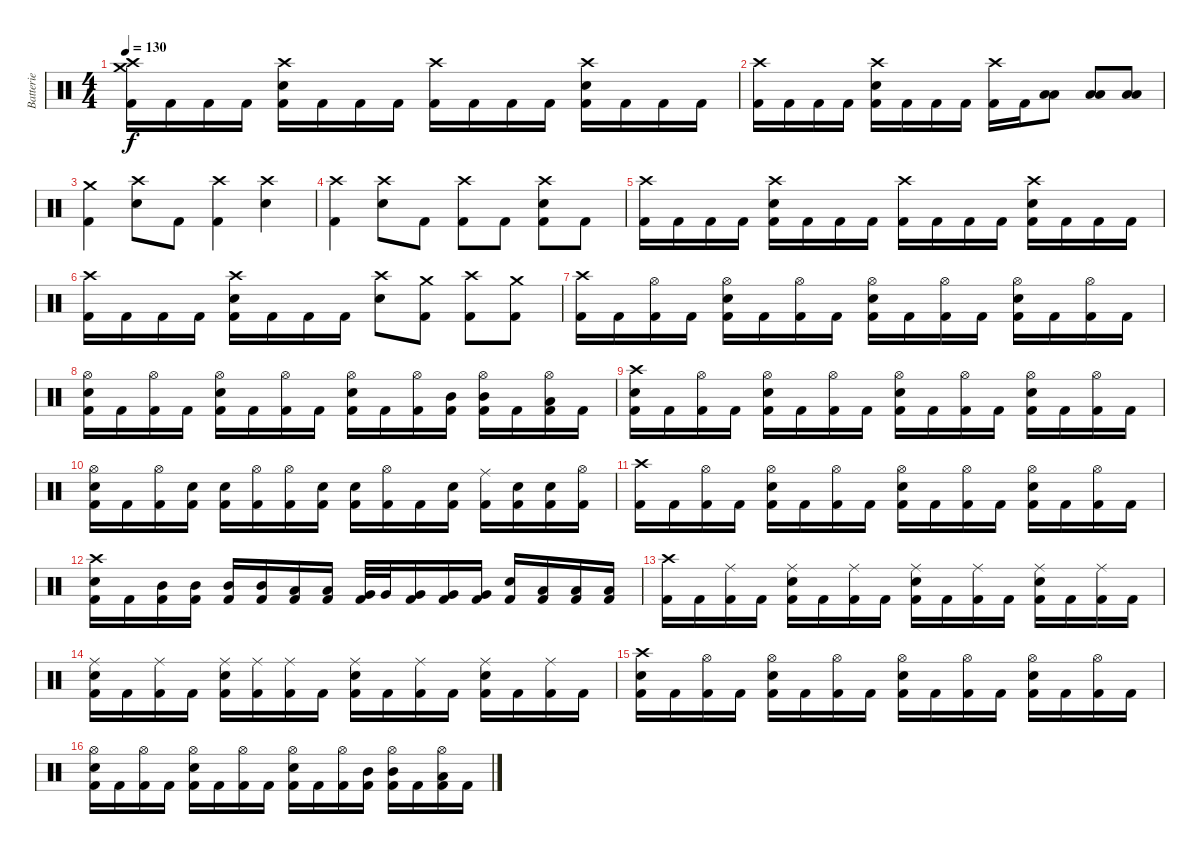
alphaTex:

\track ("Batterie" "Batterie") {instrument percussion}
\staff {score}
\articulation defaults
\ts (4 4)
\tempo 130
\clef neutral
\ks c
("Crash medium (hit)" "Crash high (hit)" "Kick (hit) 2").16{dy f} "Kick (hit) 2".16 "Kick (hit) 2".16 "Kick (hit) 2".16 ("Crash high (hit)" "Electric Snare (hit)" "Kick (hit) 2").16 "Kick (hit) 2".16 "Kick (hit) 2".16 "Kick (hit) 2".16 ("Crash high (hit)" "Kick (hit) 2").16 "Kick (hit) 2".16 "Kick (hit) 2".16 "Kick (hit) 2".16 ("Crash high (hit)" "Electric Snare (hit)" "Kick (hit) 2").16 "Kick (hit) 2".16 "Kick (hit) 2".16 "Kick (hit) 2".16 |
("Crash high (hit)" "Kick (hit) 2").16 "Kick (hit) 2".16 "Kick (hit) 2".16 "Kick (hit) 2".16 ("Crash high (hit)" "Electric Snare (hit)" "Kick (hit) 2").16 "Kick (hit) 2".16 "Kick (hit) 2".16 "Kick (hit) 2".16 ("Crash high (hit)" "Kick (hit) 2").16 "Kick (hit) 2".16 ("Low Tom (hit)" "Low Floor Tom (hit)").8{bu 60} ("Low Tom (hit)" "Low Floor Tom (hit)").8{bu 60} ("Low Tom (hit)" "Low Floor Tom (hit)").8{bu 60} |
("Crash medium (hit)" "Kick (hit) 2").4 ("Crash high (hit)" "Electric Snare (hit)").8 "Kick (hit) 2".8 ("Crash high (hit)" "Kick (hit) 2").4 ("Crash high (hit)" "Electric Snare (hit)").4 |
("Crash high (hit)" "Kick (hit) 2").4 ("Crash high (hit)" "Electric Snare (hit)").8 "Kick (hit) 2".8 ("Crash high (hit)" "Kick (hit) 2").8 "Kick (hit) 2".8 ("Crash high (hit)" "Electric Snare (hit)" "Kick (hit) 2").8 "Kick (hit) 2".8 |
("Crash high (hit)" "Kick (hit) 2").16 "Kick (hit) 2".16 "Kick (hit) 2".16 "Kick (hit) 2".16 ("Crash high (hit)" "Electric Snare (hit)" "Kick (hit) 2").16 "Kick (hit) 2".16 "Kick (hit) 2".16 "Kick (hit) 2".16 ("Crash high (hit)" "Kick (hit) 2").16 "Kick (hit) 2".16 "Kick (hit) 2".16 "Kick (hit) 2".16 ("Crash high (hit)" "Electric Snare (hit)" "Kick (hit) 2").16 "Kick (hit) 2".16 "Kick (hit) 2".16 "Kick (hit) 2".16 |
("Crash high (hit)" "Kick (hit) 2").16 "Kick (hit) 2".16 "Kick (hit) 2".16 "Kick (hit) 2".16 ("Crash high (hit)" "Electric Snare (hit)" "Kick (hit) 2").16 "Kick (hit) 2".16 "Kick (hit) 2".16 "Kick (hit) 2".16 ("Crash high (hit)" "Electric Snare (hit)").8 ("Crash medium (hit)" "Kick (hit) 2").8 ("Crash high (hit)" "Kick (hit) 2").8 ("Crash medium (hit)" "Kick (hit) 2").8 |
("Crash high (hit)" "Kick (hit) 2").16 "Kick (hit) 2".16 ("Hi-Hat (open)" "Kick (hit) 2").16 "Kick (hit) 2".16 ("Hi-Hat (open)" "Electric Snare (hit)" "Kick (hit) 2").16 "Kick (hit) 2".16 ("Hi-Hat (open)" "Kick (hit) 2").16 "Kick (hit) 2".16 ("Hi-Hat (open)" "Electric Snare (hit)" "Kick (hit) 2").16 "Kick (hit) 2".16 ("Hi-Hat (open)" "Kick (hit) 2").16 "Kick (hit) 2".16 ("Hi-Hat (open)" "Electric Snare (hit)" "Kick (hit) 2").16 "Kick (hit) 2".16 ("Hi-Hat (open)" "Kick (hit) 2").16 "Kick (hit) 2".16 |
("Hi-Hat (open)" "Electric Snare (hit)" "Kick (hit) 2").16 "Kick (hit) 2".16 ("Hi-Hat (open)" "Kick (hit) 2").16 "Kick (hit) 2".16 ("Hi-Hat (open)" "Electric Snare (hit)" "Kick (hit) 2").16 "Kick (hit) 2".16 ("Hi-Hat (open)" "Kick (hit) 2").16 "Kick (hit) 2".16 ("Hi-Hat (open)" "Electric Snare (hit)" "Kick (hit) 2").16 "Kick (hit) 2".16 ("Hi-Hat (open)" "Kick (hit) 2").16 ("Mid Tom (hit)" "Kick (hit) 2").16 ("Hi-Hat (open)" "Mid Tom (hit)" "Kick (hit) 2").16 "Kick (hit) 2".16 ("Hi-Hat (open)" "Low Tom (hit)" "Kick (hit) 2").16 "Kick (hit) 2".16 |
("Crash high (hit)" "Electric Snare (hit)" "Kick (hit) 2").16 "Kick (hit) 2".16 ("Hi-Hat (open)" "Kick (hit) 2").16 "Kick (hit) 2".16 ("Hi-Hat (open)" "Electric Snare (hit)" "Kick (hit) 2").16 "Kick (hit) 2".16 ("Hi-Hat (open)" "Kick (hit) 2").16 "Kick (hit) 2".16 ("Hi-Hat (open)" "Electric Snare (hit)" "Kick (hit) 2").16 "Kick (hit) 2".16 ("Hi-Hat (open)" "Kick (hit) 2").16 "Kick (hit) 2".16 ("Hi-Hat (open)" "Electric Snare (hit)" "Kick (hit) 2").16 "Kick (hit) 2".16 ("Hi-Hat (open)" "Kick (hit) 2").16 "Kick (hit) 2".16 |
("Hi-Hat (open)" "Electric Snare (hit)" "Kick (hit) 2").16 "Kick (hit) 2".16 ("Hi-Hat (open)" "Kick (hit) 2").16 ("Electric Snare (hit)" "Kick (hit) 2").16 ("Electric Snare (hit)" "Kick (hit) 2").16 ("Hi-Hat (open)" "Kick (hit) 2").16 ("Hi-Hat (open)" "Kick (hit) 2").16 ("Electric Snare (hit)" "Kick (hit) 2").16 ("Electric Snare (hit)" "Kick (hit) 2").16 ("Hi-Hat (open)" "Kick (hit) 2").16 "Kick (hit) 2".16 ("Electric Snare (hit)" "Kick (hit) 2").16 ("Ride (middle)" "Kick (hit) 2").16 ("Electric Snare (hit)" "Kick (hit) 2").16 ("Electric Snare (hit)" "Kick (hit) 2").16 ("Hi-Hat (open)" "Kick (hit) 2").16 |
("Crash high (hit)" "Kick (hit) 2").16 "Kick (hit) 2".16 ("Hi-Hat (open)" "Kick (hit) 2").16 "Kick (hit) 2".16 ("Hi-Hat (open)" "Electric Snare (hit)" "Kick (hit) 2").16 "Kick (hit) 2".16 ("Hi-Hat (open)" "Kick (hit) 2").16 "Kick (hit) 2".16 ("Hi-Hat (open)" "Electric Snare (hit)" "Kick (hit) 2").16 "Kick (hit) 2".16 ("Hi-Hat (open)" "Kick (hit) 2").16 "Kick (hit) 2".16 ("Hi-Hat (open)" "Electric Snare (hit)" "Kick (hit) 2").16 "Kick (hit) 2".16 ("Hi-Hat (open)" "Kick (hit) 2").16 "Kick (hit) 2".16 |
("Crash high (hit)" "Electric Snare (hit)" "Kick (hit) 2").16 "Kick (hit) 2".16 ("Mid Tom (hit)" "Kick (hit) 2").16 ("Mid Tom (hit)" "Kick (hit) 2").16 ("Mid Tom (hit)" "Kick (hit) 2").16 ("Mid Tom (hit)" "Kick (hit) 2").16 ("Low Tom (hit)" "Kick (hit) 2").16 ("Low Tom (hit)" "Kick (hit) 2").16 ("Very Low Tom (hit)" "Kick (hit) 2").32 "Very Low Tom (hit)".32 ("Very Low Tom (hit)" "Kick (hit) 2").16 ("Very Low Tom (hit)" "Kick (hit) 2").16 ("Very Low Tom (hit)" "Kick (hit) 2").16 ("Electric Snare (hit)" "Kick (hit) 2").16 ("Low Tom (hit)" "Kick (hit) 2").16 ("Low Tom (hit)" "Kick (hit) 2").16 ("Low Tom (hit)" "Kick (hit) 2").16 |
("Crash high (hit)" "Kick (hit) 2").16 "Kick (hit) 2".16 ("Ride (middle)" "Kick (hit) 2").16 "Kick (hit) 2".16 ("Ride (middle)" "Electric Snare (hit)" "Kick (hit) 2").16 "Kick (hit) 2".16 ("Ride (middle)" "Kick (hit) 2").16 "Kick (hit) 2".16 ("Ride (middle)" "Electric Snare (hit)" "Kick (hit) 2").16 "Kick (hit) 2".16 ("Ride (middle)" "Kick (hit) 2").16 "Kick (hit) 2".16 ("Ride (middle)" "Electric Snare (hit)" "Kick (hit) 2").16 "Kick (hit) 2".16 ("Ride (middle)" "Kick (hit) 2").16 "Kick (hit) 2".16 |
("Ride (middle)" "Electric Snare (hit)" "Kick (hit) 2").16 "Kick (hit) 2".16 ("Ride (middle)" "Kick (hit) 2").16 "Kick (hit) 2".16 ("Ride (middle)" "Electric Snare (hit)" "Kick (hit) 2").16 ("Ride (middle)" "Kick (hit) 2").16 ("Ride (middle)" "Kick (hit) 2").16 "Kick (hit) 2".16 ("Ride (middle)" "Electric Snare (hit)" "Kick (hit) 2").16 "Kick (hit) 2".16 ("Ride (middle)" "Kick (hit) 2").16 "Kick (hit) 2".16 ("Ride (middle)" "Electric Snare (hit)" "Kick (hit) 2").16 "Kick (hit) 2".16 ("Ride (middle)" "Kick (hit) 2").16 "Kick (hit) 2".16 |
("Crash high (hit)" "Electric Snare (hit)" "Kick (hit) 2").16 "Kick (hit) 2".16 ("Hi-Hat (open)" "Kick (hit) 2").16 "Kick (hit) 2".16 ("Hi-Hat (open)" "Electric Snare (hit)" "Kick (hit) 2").16 "Kick (hit) 2".16 ("Hi-Hat (open)" "Kick (hit) 2").16 "Kick (hit) 2".16 ("Hi-Hat (open)" "Electric Snare (hit)" "Kick (hit) 2").16 "Kick (hit) 2".16 ("Hi-Hat (open)" "Kick (hit) 2").16 "Kick (hit) 2".16 ("Hi-Hat (open)" "Electric Snare (hit)" "Kick (hit) 2").16 "Kick (hit) 2".16 ("Hi-Hat (open)" "Kick (hit) 2").16 "Kick (hit) 2".16 |
("Hi-Hat (open)" "Electric Snare (hit)" "Kick (hit) 2").16 "Kick (hit) 2".16 ("Hi-Hat (open)" "Kick (hit) 2").16 "Kick (hit) 2".16 ("Hi-Hat (open)" "Electric Snare (hit)" "Kick (hit) 2").16 "Kick (hit) 2".16 ("Hi-Hat (open)" "Kick (hit) 2").16 "Kick (hit) 2".16 ("Hi-Hat (open)" "Electric Snare (hit)" "Kick (hit) 2").16 "Kick (hit) 2".16 ("Hi-Hat (open)" "Kick (hit) 2").16 ("Mid Tom (hit)" "Kick (hit) 2").16 ("Hi-Hat (open)" "Mid Tom (hit)" "Kick (hit) 2").16 "Kick (hit) 2".16 ("Hi-Hat (open)" "Low Tom (hit)" "Kick (hit) 2").16 "Kick (hit) 2".16
